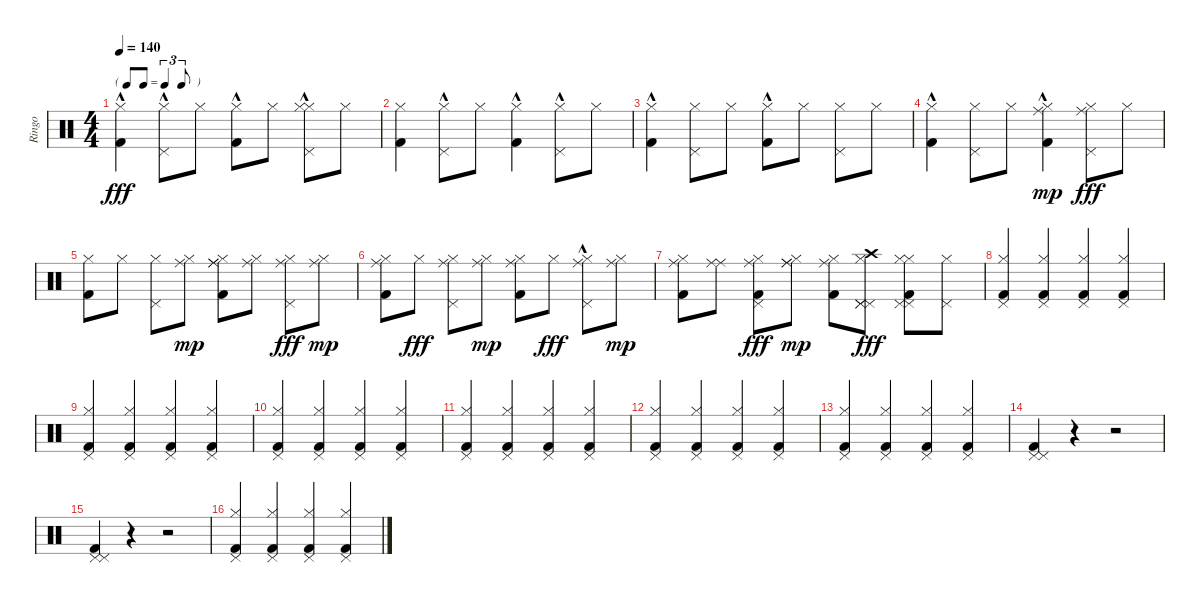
\track ("Ringo" "Ringo") {instrument percussion}
\staff {score}
\articulation defaults
\ts (4 4)
\tf triplet8th
\tempo 140
\clef neutral
\ks c
("Kick (hit) 2"{hac} "Hi-Hat (closed)").4{dy fff} ("Hi-Hat (closed)" "Pedal Hi-Hat (hit)"{hac}).8 "Hi-Hat (closed)".8 ("Kick (hit) 2"{hac} "Hi-Hat (closed)").8 "Hi-Hat (closed)".8 ("Hi-Hat (closed)" "Hi-Hat (closed)" "Pedal Hi-Hat (hit)"{hac}).8 "Hi-Hat (closed)".8 |
("Kick (hit) 2" "Hi-Hat (closed)").4 ("Hi-Hat (closed)" "Pedal Hi-Hat (hit)"{hac}).8 "Hi-Hat (closed)".8 ("Kick (hit) 2"{hac} "Hi-Hat (closed)").4 ("Hi-Hat (closed)" "Pedal Hi-Hat (hit)"{hac}).8 "Hi-Hat (closed)".8 |
("Kick (hit) 2"{hac} "Hi-Hat (closed)").4 ("Hi-Hat (closed)" "Pedal Hi-Hat (hit)").8 "Hi-Hat (closed)".8 ("Kick (hit) 2"{hac} "Hi-Hat (closed)").8 "Hi-Hat (closed)".8 ("Hi-Hat (closed)" "Pedal Hi-Hat (hit)").8 "Hi-Hat (closed)".8 |
("Kick (hit) 2"{hac} "Hi-Hat (closed)").4 ("Hi-Hat (closed)" "Pedal Hi-Hat (hit)").8 "Hi-Hat (closed)".8 ("Kick (hit) 2"{hac} "Hi-Hat (closed)" "Ride (middle)").4{dy mp} ("Hi-Hat (closed)" "Ride (middle)" "Pedal Hi-Hat (hit)").8{dy fff} "Hi-Hat (closed)".8 |
("Kick (hit) 2" "Hi-Hat (closed)").8 "Hi-Hat (closed)".8 ("Hi-Hat (closed)" "Pedal Hi-Hat (hit)").8 ("Hi-Hat (closed)" "Ride (middle)").8{dy mp} ("Kick (hit) 2" "Hi-Hat (closed)" "Ride (middle)" "Ride (middle)").8 ("Hi-Hat (closed)" "Ride (middle)").8 ("Hi-Hat (closed)" "Ride (middle)" "Pedal Hi-Hat (hit)").8{dy fff} ("Hi-Hat (closed)" "Ride (middle)").8{dy mp} |
("Kick (hit) 2" "Hi-Hat (closed)" "Ride (middle)").8 "Hi-Hat (closed)".8{dy fff} ("Hi-Hat (closed)" "Ride (middle)" "Pedal Hi-Hat (hit)").8 ("Hi-Hat (closed)" "Ride (middle)").8{dy mp} ("Kick (hit) 2" "Hi-Hat (closed)" "Ride (middle)").8 "Hi-Hat (closed)".8{dy fff} ("Hi-Hat (closed)" "Ride (middle)" "Pedal Hi-Hat (hit)"{hac}).8 ("Hi-Hat (closed)" "Ride (middle)").8{dy mp} |
("Kick (hit) 2" "Hi-Hat (closed)" "Ride (middle)").8 ("Ride (middle)" "Ride (middle)").8 ("Kick (hit) 2" "Hi-Hat (closed)" "Ride (middle)" "Pedal Hi-Hat (hit)").8{dy fff} ("Ride (middle)" "Hi-Hat (closed)" "Ride (middle)").8{dy mp} ("Kick (hit) 2" "Hi-Hat (closed)" "Ride (middle)").8 ("Hi-Hat (closed)" "Crash high (hit)" "Pedal Hi-Hat (hit)" "Pedal Hi-Hat (hit)" "Pedal Hi-Hat (hit)").8{dy fff} ("Kick (hit) 2" "Hi-Hat (closed)" "Pedal Hi-Hat (hit)" "Pedal Hi-Hat (hit)" "Hi-Hat (closed)").8 ("Hi-Hat (closed)" "Pedal Hi-Hat (hit)").8 |
("Kick (hit) 2" "Hi-Hat (closed)" "Pedal Hi-Hat (hit)").4 ("Kick (hit) 2" "Hi-Hat (closed)" "Pedal Hi-Hat (hit)").4 ("Kick (hit) 2" "Hi-Hat (closed)" "Pedal Hi-Hat (hit)").4 ("Kick (hit) 2" "Hi-Hat (closed)" "Pedal Hi-Hat (hit)").4 |
("Kick (hit) 2" "Hi-Hat (closed)" "Pedal Hi-Hat (hit)").4 ("Kick (hit) 2" "Hi-Hat (closed)" "Pedal Hi-Hat (hit)").4 ("Kick (hit) 2" "Hi-Hat (closed)" "Pedal Hi-Hat (hit)").4 ("Kick (hit) 2" "Hi-Hat (closed)" "Pedal Hi-Hat (hit)").4 |
("Kick (hit) 2" "Hi-Hat (closed)" "Pedal Hi-Hat (hit)").4 ("Kick (hit) 2" "Hi-Hat (closed)" "Pedal Hi-Hat (hit)").4 ("Kick (hit) 2" "Hi-Hat (closed)" "Pedal Hi-Hat (hit)").4 ("Kick (hit) 2" "Hi-Hat (closed)" "Pedal Hi-Hat (hit)").4 |
("Kick (hit) 2" "Hi-Hat (closed)" "Pedal Hi-Hat (hit)").4 ("Kick (hit) 2" "Hi-Hat (closed)" "Pedal Hi-Hat (hit)").4 ("Kick (hit) 2" "Hi-Hat (closed)" "Pedal Hi-Hat (hit)").4 ("Kick (hit) 2" "Hi-Hat (closed)" "Pedal Hi-Hat (hit)").4 |
("Kick (hit) 2" "Hi-Hat (closed)" "Pedal Hi-Hat (hit)").4 ("Kick (hit) 2" "Hi-Hat (closed)" "Pedal Hi-Hat (hit)").4 ("Kick (hit) 2" "Hi-Hat (closed)" "Pedal Hi-Hat (hit)").4 ("Kick (hit) 2" "Hi-Hat (closed)" "Pedal Hi-Hat (hit)").4 |
("Kick (hit) 2" "Hi-Hat (closed)" "Pedal Hi-Hat (hit)").4 ("Kick (hit) 2" "Hi-Hat (closed)" "Pedal Hi-Hat (hit)").4 ("Kick (hit) 2" "Hi-Hat (closed)" "Pedal Hi-Hat (hit)").4 ("Kick (hit) 2" "Hi-Hat (closed)" "Pedal Hi-Hat (hit)").4 |
("Kick (hit) 2" "Pedal Hi-Hat (hit)" "Pedal Hi-Hat (hit)").4 r.4 r.2 |
("Kick (hit) 2" "Pedal Hi-Hat (hit)" "Pedal Hi-Hat (hit)").4 r.4 r.2 |
("Kick (hit) 2" "Hi-Hat (closed)" "Pedal Hi-Hat (hit)").4 ("Kick (hit) 2" "Hi-Hat (closed)" "Pedal Hi-Hat (hit)").4 ("Kick (hit) 2" "Hi-Hat (closed)" "Pedal Hi-Hat (hit)").4 ("Kick (hit) 2" "Hi-Hat (closed)" "Pedal Hi-Hat (hit)").4
